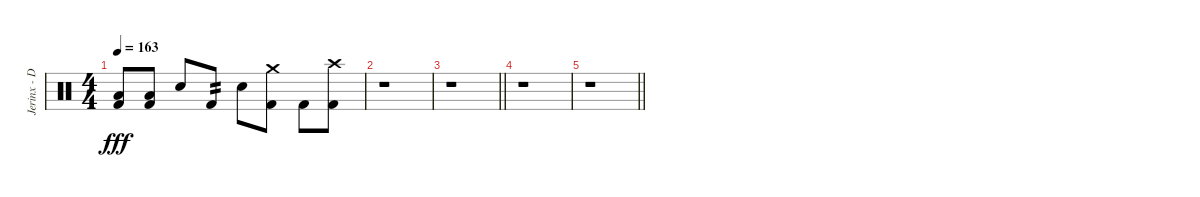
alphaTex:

\track ("Jerinx - Drum" "Jerinx - D") {instrument percussion}
\staff {score}
\articulation defaults
\ts (4 4)
\tempo 163
\clef neutral
\ks c
("Kick (hit) 2" "Low Floor Tom (hit)").8{dy fff} ("Kick (hit) 2" "Low Floor Tom (hit)").8 "Snare (hit) 2".8 "Kick (hit) 2".8{tp 2} "Snare (hit) 2".8 ("Kick (hit) 2" "Crash medium (hit)").8 "Kick (hit) 2".8 ("Kick (hit) 2" "Crash high (hit)").8 |
r.1 |
\barLineRight lightlight
r.1 |
r.1 |
\barLineRight lightlight
r.1
